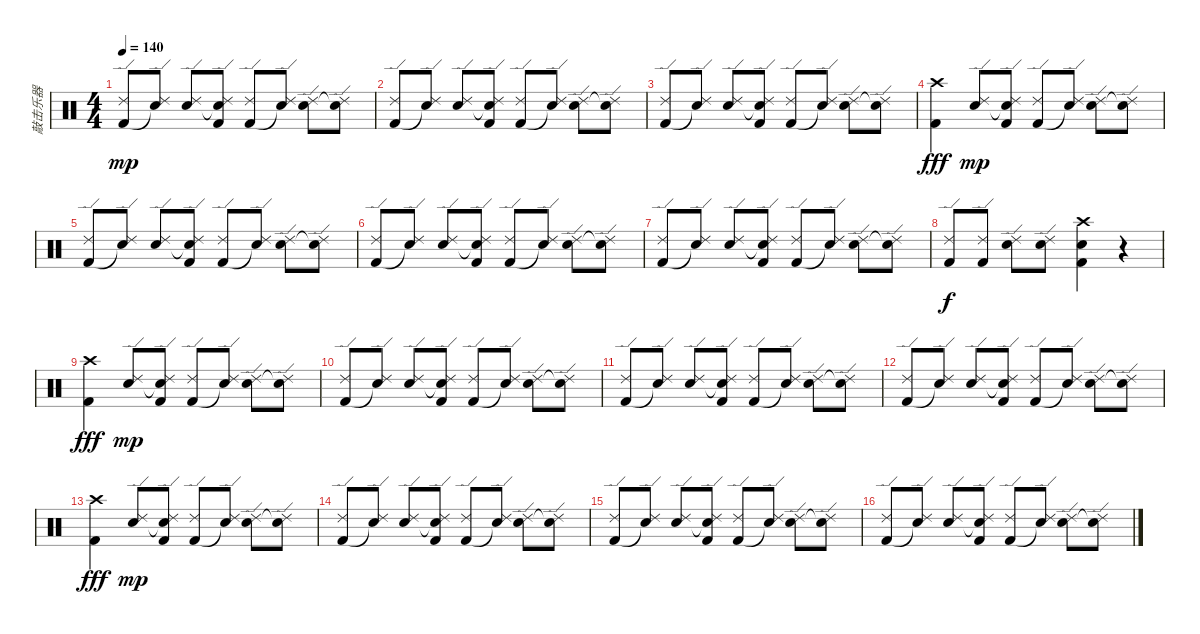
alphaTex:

\track ("敲击乐器" "敲击乐器") {instrument percussion}
\staff {score}
\articulation defaults
\ts (4 4)
\tempo 140
\clef neutral
\ks c
("Kick (hit) 2" "Ride (edge) 2").8{dy mp} ("Snare (hit)"{t} "Ride (edge) 2").8 ("Electric Snare (hit)" "Ride (edge) 2").8 ("Snare (hit)"{t} "Kick (hit) 2" "Ride (edge) 2").8 ("Kick (hit) 2" "Ride (edge) 2").8 ("Snare (hit)"{t} "Ride (edge) 2").8 ("Electric Snare (hit)" "Ride (edge) 2").8 ("Snare (hit)"{t} "Ride (edge) 2").8 |
("Kick (hit) 2" "Ride (edge) 2").8 ("Snare (hit)"{t} "Ride (edge) 2").8 ("Electric Snare (hit)" "Ride (edge) 2").8 ("Snare (hit)"{t} "Kick (hit) 2" "Ride (edge) 2").8 ("Kick (hit) 2" "Ride (edge) 2").8 ("Snare (hit)"{t} "Ride (edge) 2").8 ("Electric Snare (hit)" "Ride (edge) 2").8 ("Snare (hit)"{t} "Ride (edge) 2").8 |
("Kick (hit) 2" "Ride (edge) 2").8 ("Snare (hit)"{t} "Ride (edge) 2").8 ("Electric Snare (hit)" "Ride (edge) 2").8 ("Snare (hit)"{t} "Kick (hit) 2" "Ride (edge) 2").8 ("Kick (hit) 2" "Ride (edge) 2").8 ("Snare (hit)"{t} "Ride (edge) 2").8 ("Electric Snare (hit)" "Ride (edge) 2").8 ("Snare (hit)"{t} "Ride (edge) 2").8 |
("Kick (hit) 2" "Crash high (hit)").4{dy fff} ("Electric Snare (hit)" "Ride (edge) 2").8{dy mp} ("Snare (hit)"{t} "Kick (hit) 2" "Ride (edge) 2").8 ("Kick (hit) 2" "Ride (edge) 2").8 ("Snare (hit)"{t} "Ride (edge) 2").8 ("Electric Snare (hit)" "Ride (edge) 2").8 ("Snare (hit)"{t} "Ride (edge) 2").8 |
("Kick (hit) 2" "Ride (edge) 2").8 ("Snare (hit)"{t} "Ride (edge) 2").8 ("Electric Snare (hit)" "Ride (edge) 2").8 ("Snare (hit)"{t} "Kick (hit) 2" "Ride (edge) 2").8 ("Kick (hit) 2" "Ride (edge) 2").8 ("Snare (hit)"{t} "Ride (edge) 2").8 ("Electric Snare (hit)" "Ride (edge) 2").8 ("Snare (hit)"{t} "Ride (edge) 2").8 |
("Kick (hit) 2" "Ride (edge) 2").8 ("Snare (hit)"{t} "Ride (edge) 2").8 ("Electric Snare (hit)" "Ride (edge) 2").8 ("Snare (hit)"{t} "Kick (hit) 2" "Ride (edge) 2").8 ("Kick (hit) 2" "Ride (edge) 2").8 ("Snare (hit)"{t} "Ride (edge) 2").8 ("Electric Snare (hit)" "Ride (edge) 2").8 ("Snare (hit)"{t} "Ride (edge) 2").8 |
("Kick (hit) 2" "Ride (edge) 2").8 ("Snare (hit)"{t} "Ride (edge) 2").8 ("Electric Snare (hit)" "Ride (edge) 2").8 ("Snare (hit)"{t} "Kick (hit) 2" "Ride (edge) 2").8 ("Kick (hit) 2" "Ride (edge) 2").8 ("Snare (hit)"{t} "Ride (edge) 2").8 ("Electric Snare (hit)" "Ride (edge) 2").8 ("Snare (hit)"{t} "Ride (edge) 2").8 |
("Kick (hit) 2" "Ride (edge) 2").8{dy f} ("Kick (hit) 2" "Ride (edge) 2").8 ("Snare (hit) 2" "Ride (edge) 2").8 ("Snare (hit) 2" "Ride (edge) 2").8 ("Crash high (hit)" "Snare (hit) 2" "Kick (hit) 2").4 r.4 |
("Kick (hit) 2" "Crash high (hit)").4{dy fff} ("Electric Snare (hit)" "Ride (edge) 2").8{dy mp} ("Snare (hit)"{t} "Kick (hit) 2" "Ride (edge) 2").8 ("Kick (hit) 2" "Ride (edge) 2").8 ("Snare (hit)"{t} "Ride (edge) 2").8 ("Electric Snare (hit)" "Ride (edge) 2").8 ("Snare (hit)"{t} "Ride (edge) 2").8 |
("Kick (hit) 2" "Ride (edge) 2").8 ("Snare (hit)"{t} "Ride (edge) 2").8 ("Electric Snare (hit)" "Ride (edge) 2").8 ("Snare (hit)"{t} "Kick (hit) 2" "Ride (edge) 2").8 ("Kick (hit) 2" "Ride (edge) 2").8 ("Snare (hit)"{t} "Ride (edge) 2").8 ("Electric Snare (hit)" "Ride (edge) 2").8 ("Snare (hit)"{t} "Ride (edge) 2").8 |
("Kick (hit) 2" "Ride (edge) 2").8 ("Snare (hit)"{t} "Ride (edge) 2").8 ("Electric Snare (hit)" "Ride (edge) 2").8 ("Snare (hit)"{t} "Kick (hit) 2" "Ride (edge) 2").8 ("Kick (hit) 2" "Ride (edge) 2").8 ("Snare (hit)"{t} "Ride (edge) 2").8 ("Electric Snare (hit)" "Ride (edge) 2").8 ("Snare (hit)"{t} "Ride (edge) 2").8 |
("Kick (hit) 2" "Ride (edge) 2").8 ("Snare (hit)"{t} "Ride (edge) 2").8 ("Electric Snare (hit)" "Ride (edge) 2").8 ("Snare (hit)"{t} "Kick (hit) 2" "Ride (edge) 2").8 ("Kick (hit) 2" "Ride (edge) 2").8 ("Snare (hit)"{t} "Ride (edge) 2").8 ("Electric Snare (hit)" "Ride (edge) 2").8 ("Snare (hit)"{t} "Ride (edge) 2").8 |
("Kick (hit) 2" "Crash high (hit)").4{dy fff} ("Electric Snare (hit)" "Ride (edge) 2").8{dy mp} ("Snare (hit)"{t} "Kick (hit) 2" "Ride (edge) 2").8 ("Kick (hit) 2" "Ride (edge) 2").8 ("Snare (hit)"{t} "Ride (edge) 2").8 ("Electric Snare (hit)" "Ride (edge) 2").8 ("Snare (hit)"{t} "Ride (edge) 2").8 |
("Kick (hit) 2" "Ride (edge) 2").8 ("Snare (hit)"{t} "Ride (edge) 2").8 ("Electric Snare (hit)" "Ride (edge) 2").8 ("Snare (hit)"{t} "Kick (hit) 2" "Ride (edge) 2").8 ("Kick (hit) 2" "Ride (edge) 2").8 ("Snare (hit)"{t} "Ride (edge) 2").8 ("Electric Snare (hit)" "Ride (edge) 2").8 ("Snare (hit)"{t} "Ride (edge) 2").8 |
("Kick (hit) 2" "Ride (edge) 2").8 ("Snare (hit)"{t} "Ride (edge) 2").8 ("Electric Snare (hit)" "Ride (edge) 2").8 ("Snare (hit)"{t} "Kick (hit) 2" "Ride (edge) 2").8 ("Kick (hit) 2" "Ride (edge) 2").8 ("Snare (hit)"{t} "Ride (edge) 2").8 ("Electric Snare (hit)" "Ride (edge) 2").8 ("Snare (hit)"{t} "Ride (edge) 2").8 |
("Kick (hit) 2" "Ride (edge) 2").8 ("Snare (hit)"{t} "Ride (edge) 2").8 ("Electric Snare (hit)" "Ride (edge) 2").8 ("Snare (hit)"{t} "Kick (hit) 2" "Ride (edge) 2").8 ("Kick (hit) 2" "Ride (edge) 2").8 ("Snare (hit)"{t} "Ride (edge) 2").8 ("Electric Snare (hit)" "Ride (edge) 2").8 ("Snare (hit)"{t} "Ride (edge) 2").8
